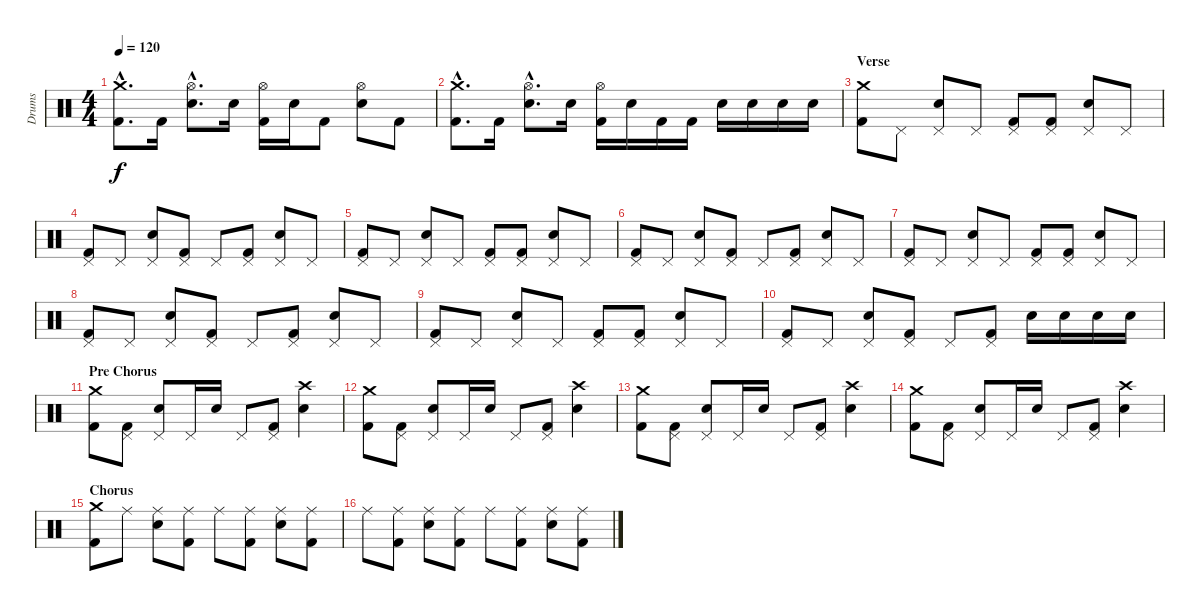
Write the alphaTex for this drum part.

\track ("Drums" "Drums") {instrument percussion}
\staff {score}
\articulation defaults
\ts (4 4)
\tempo 120
\clef neutral
\ks c
("Crash medium (hit)"{hac} "Kick (hit) 2"{hac}).8{d dy f} "Kick (hit) 2".16 ("Hi-Hat (open)"{hac} "Electric Snare (hit)"{hac}).8{d} "Electric Snare (hit)".16 ("Hi-Hat (open)" "Kick (hit) 2").16 "Electric Snare (hit)".16 "Kick (hit) 2".8 ("Hi-Hat (open)" "Electric Snare (hit)").8 "Kick (hit) 2".8 |
("Crash medium (hit)"{hac} "Kick (hit) 2"{hac}).8{d} "Kick (hit) 2".16 ("Hi-Hat (open)"{hac} "Electric Snare (hit)"{hac}).8{d} "Electric Snare (hit)".16 ("Hi-Hat (open)" "Kick (hit) 2").16 "Electric Snare (hit)".16 "Kick (hit) 2".16 "Kick (hit) 2".16 "Electric Snare (hit)".16 "Electric Snare (hit)".16 "Electric Snare (hit)".16 "Electric Snare (hit)".16 |
\section ("" "Verse")
("Crash medium (hit)" "Kick (hit) 2").8 "Pedal Hi-Hat (hit)".8 ("Pedal Hi-Hat (hit)" "Electric Snare (hit)").8 "Pedal Hi-Hat (hit)".8 ("Pedal Hi-Hat (hit)" "Kick (hit) 2").8 ("Pedal Hi-Hat (hit)" "Kick (hit) 2").8 ("Pedal Hi-Hat (hit)" "Electric Snare (hit)").8 "Pedal Hi-Hat (hit)".8 |
("Pedal Hi-Hat (hit)" "Kick (hit) 2").8 "Pedal Hi-Hat (hit)".8 ("Pedal Hi-Hat (hit)" "Electric Snare (hit)").8 ("Pedal Hi-Hat (hit)" "Kick (hit) 2").8 "Pedal Hi-Hat (hit)".8 ("Pedal Hi-Hat (hit)" "Kick (hit) 2").8 ("Pedal Hi-Hat (hit)" "Electric Snare (hit)").8 "Pedal Hi-Hat (hit)".8 |
("Pedal Hi-Hat (hit)" "Kick (hit) 2").8 "Pedal Hi-Hat (hit)".8 ("Pedal Hi-Hat (hit)" "Electric Snare (hit)").8 "Pedal Hi-Hat (hit)".8 ("Pedal Hi-Hat (hit)" "Kick (hit) 2").8 ("Pedal Hi-Hat (hit)" "Kick (hit) 2").8 ("Pedal Hi-Hat (hit)" "Electric Snare (hit)").8 "Pedal Hi-Hat (hit)".8 |
("Pedal Hi-Hat (hit)" "Kick (hit) 2").8 "Pedal Hi-Hat (hit)".8 ("Pedal Hi-Hat (hit)" "Electric Snare (hit)").8 ("Pedal Hi-Hat (hit)" "Kick (hit) 2").8 "Pedal Hi-Hat (hit)".8 ("Pedal Hi-Hat (hit)" "Kick (hit) 2").8 ("Pedal Hi-Hat (hit)" "Electric Snare (hit)").8 "Pedal Hi-Hat (hit)".8 |
("Pedal Hi-Hat (hit)" "Kick (hit) 2").8 "Pedal Hi-Hat (hit)".8 ("Pedal Hi-Hat (hit)" "Electric Snare (hit)").8 "Pedal Hi-Hat (hit)".8 ("Pedal Hi-Hat (hit)" "Kick (hit) 2").8 ("Pedal Hi-Hat (hit)" "Kick (hit) 2").8 ("Pedal Hi-Hat (hit)" "Electric Snare (hit)").8 "Pedal Hi-Hat (hit)".8 |
("Pedal Hi-Hat (hit)" "Kick (hit) 2").8 "Pedal Hi-Hat (hit)".8 ("Pedal Hi-Hat (hit)" "Electric Snare (hit)").8 ("Pedal Hi-Hat (hit)" "Kick (hit) 2").8 "Pedal Hi-Hat (hit)".8 ("Pedal Hi-Hat (hit)" "Kick (hit) 2").8 ("Pedal Hi-Hat (hit)" "Electric Snare (hit)").8 "Pedal Hi-Hat (hit)".8 |
("Pedal Hi-Hat (hit)" "Kick (hit) 2").8 "Pedal Hi-Hat (hit)".8 ("Pedal Hi-Hat (hit)" "Electric Snare (hit)").8 "Pedal Hi-Hat (hit)".8 ("Pedal Hi-Hat (hit)" "Kick (hit) 2").8 ("Pedal Hi-Hat (hit)" "Kick (hit) 2").8 ("Pedal Hi-Hat (hit)" "Electric Snare (hit)").8 "Pedal Hi-Hat (hit)".8 |
("Pedal Hi-Hat (hit)" "Kick (hit) 2").8 "Pedal Hi-Hat (hit)".8 ("Pedal Hi-Hat (hit)" "Electric Snare (hit)").8 ("Pedal Hi-Hat (hit)" "Kick (hit) 2").8 "Pedal Hi-Hat (hit)".8 ("Pedal Hi-Hat (hit)" "Kick (hit) 2").8 "Electric Snare (hit)".16 "Electric Snare (hit)".16 "Electric Snare (hit)".16 "Electric Snare (hit)".16 |
\section ("" "Pre Chorus")
("Crash medium (hit)" "Kick (hit) 2").8 ("Pedal Hi-Hat (hit)" "Kick (hit) 2").8 ("Pedal Hi-Hat (hit)" "Electric Snare (hit)").8 "Pedal Hi-Hat (hit)".16 "Electric Snare (hit)".16 "Pedal Hi-Hat (hit)".8 ("Pedal Hi-Hat (hit)" "Kick (hit) 2").8 ("Crash high (hit)" "Electric Snare (hit)").4 |
("Crash medium (hit)" "Kick (hit) 2").8 ("Pedal Hi-Hat (hit)" "Kick (hit) 2").8 ("Pedal Hi-Hat (hit)" "Electric Snare (hit)").8 "Pedal Hi-Hat (hit)".16 "Electric Snare (hit)".16 "Pedal Hi-Hat (hit)".8 ("Pedal Hi-Hat (hit)" "Kick (hit) 2").8 ("Crash high (hit)" "Electric Snare (hit)").4 |
("Crash medium (hit)" "Kick (hit) 2").8 ("Pedal Hi-Hat (hit)" "Kick (hit) 2").8 ("Pedal Hi-Hat (hit)" "Electric Snare (hit)").8 "Pedal Hi-Hat (hit)".16 "Electric Snare (hit)".16 "Pedal Hi-Hat (hit)".8 ("Pedal Hi-Hat (hit)" "Kick (hit) 2").8 ("Crash high (hit)" "Electric Snare (hit)").4 |
("Crash medium (hit)" "Kick (hit) 2").8 ("Pedal Hi-Hat (hit)" "Kick (hit) 2").8 ("Pedal Hi-Hat (hit)" "Electric Snare (hit)").8 "Pedal Hi-Hat (hit)".16 "Electric Snare (hit)".16 "Pedal Hi-Hat (hit)".8 ("Pedal Hi-Hat (hit)" "Kick (hit) 2").8 ("Crash high (hit)" "Electric Snare (hit)").4 |
\section ("" "Chorus")
("Crash medium (hit)" "Kick (hit) 2").8 "Ride (middle)".8 ("Ride (middle)" "Electric Snare (hit)").8 ("Ride (middle)" "Kick (hit) 2").8 "Ride (middle)".8 ("Ride (middle)" "Kick (hit) 2").8 ("Ride (middle)" "Electric Snare (hit)").8 ("Ride (middle)" "Kick (hit) 2").8 |
"Ride (middle)".8 ("Ride (middle)" "Kick (hit) 2").8 ("Ride (middle)" "Electric Snare (hit)").8 ("Ride (middle)" "Kick (hit) 2").8 "Ride (middle)".8 ("Ride (middle)" "Kick (hit) 2").8 ("Ride (middle)" "Electric Snare (hit)").8 ("Ride (middle)" "Kick (hit) 2").8
